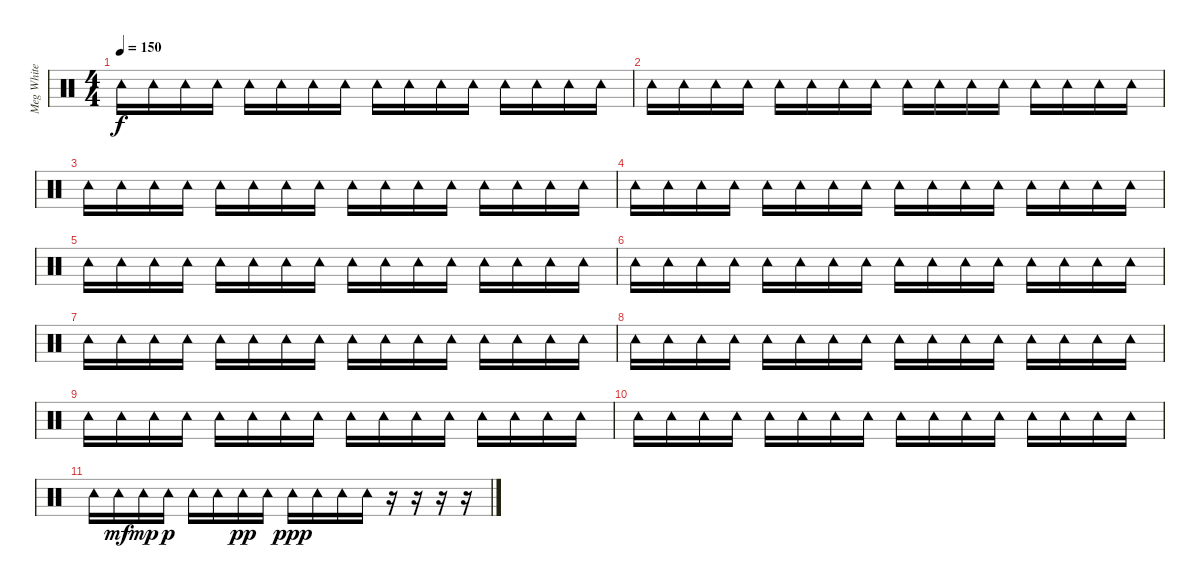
\track ("Meg White - Tambourine" "Meg White ") {instrument percussion}
\staff {score}
\articulation defaults
\ts (4 4)
\tempo 150
\clef neutral
\ks c "Tambourine (hit)".16{dy f} "Tambourine (hit)".16 "Tambourine (hit)".16 "Tambourine (hit)".16 "Tambourine (hit)".16 "Tambourine (hit)".16 "Tambourine (hit)".16 "Tambourine (hit)".16 "Tambourine (hit)".16 "Tambourine (hit)".16 "Tambourine (hit)".16 "Tambourine (hit)".16 "Tambourine (hit)".16 "Tambourine (hit)".16 "Tambourine (hit)".16 "Tambourine (hit)".16
|
"Tambourine (hit)".16 "Tambourine (hit)".16 "Tambourine (hit)".16 "Tambourine (hit)".16 "Tambourine (hit)".16 "Tambourine (hit)".16 "Tambourine (hit)".16 "Tambourine (hit)".16 "Tambourine (hit)".16 "Tambourine (hit)".16 "Tambourine (hit)".16 "Tambourine (hit)".16 "Tambourine (hit)".16 "Tambourine (hit)".16 "Tambourine (hit)".16 "Tambourine (hit)".16 |
"Tambourine (hit)".16 "Tambourine (hit)".16 "Tambourine (hit)".16 "Tambourine (hit)".16 "Tambourine (hit)".16 "Tambourine (hit)".16 "Tambourine (hit)".16 "Tambourine (hit)".16 "Tambourine (hit)".16 "Tambourine (hit)".16 "Tambourine (hit)".16 "Tambourine (hit)".16 "Tambourine (hit)".16 "Tambourine (hit)".16 "Tambourine (hit)".16 "Tambourine (hit)".16 |
"Tambourine (hit)".16 "Tambourine (hit)".16 "Tambourine (hit)".16 "Tambourine (hit)".16 "Tambourine (hit)".16 "Tambourine (hit)".16 "Tambourine (hit)".16 "Tambourine (hit)".16 "Tambourine (hit)".16 "Tambourine (hit)".16 "Tambourine (hit)".16 "Tambourine (hit)".16 "Tambourine (hit)".16 "Tambourine (hit)".16 "Tambourine (hit)".16 "Tambourine (hit)".16 |
"Tambourine (hit)".16 "Tambourine (hit)".16 "Tambourine (hit)".16 "Tambourine (hit)".16 "Tambourine (hit)".16 "Tambourine (hit)".16 "Tambourine (hit)".16 "Tambourine (hit)".16 "Tambourine (hit)".16 "Tambourine (hit)".16 "Tambourine (hit)".16 "Tambourine (hit)".16 "Tambourine (hit)".16 "Tambourine (hit)".16 "Tambourine (hit)".16 "Tambourine (hit)".16 |
"Tambourine (hit)".16 "Tambourine (hit)".16 "Tambourine (hit)".16 "Tambourine (hit)".16 "Tambourine (hit)".16 "Tambourine (hit)".16 "Tambourine (hit)".16 "Tambourine (hit)".16 "Tambourine (hit)".16 "Tambourine (hit)".16 "Tambourine (hit)".16 "Tambourine (hit)".16 "Tambourine (hit)".16 "Tambourine (hit)".16 "Tambourine (hit)".16 "Tambourine (hit)".16 |
"Tambourine (hit)".16 "Tambourine (hit)".16 "Tambourine (hit)".16 "Tambourine (hit)".16 "Tambourine (hit)".16 "Tambourine (hit)".16 "Tambourine (hit)".16 "Tambourine (hit)".16 "Tambourine (hit)".16 "Tambourine (hit)".16 "Tambourine (hit)".16 "Tambourine (hit)".16 "Tambourine (hit)".16 "Tambourine (hit)".16 "Tambourine (hit)".16 "Tambourine (hit)".16 |
"Tambourine (hit)".16 "Tambourine (hit)".16 "Tambourine (hit)".16 "Tambourine (hit)".16 "Tambourine (hit)".16 "Tambourine (hit)".16 "Tambourine (hit)".16 "Tambourine (hit)".16 "Tambourine (hit)".16 "Tambourine (hit)".16 "Tambourine (hit)".16 "Tambourine (hit)".16 "Tambourine (hit)".16 "Tambourine (hit)".16 "Tambourine (hit)".16 "Tambourine (hit)".16 |
"Tambourine (hit)".16 "Tambourine (hit)".16 "Tambourine (hit)".16 "Tambourine (hit)".16 "Tambourine (hit)".16 "Tambourine (hit)".16 "Tambourine (hit)".16 "Tambourine (hit)".16 "Tambourine (hit)".16 "Tambourine (hit)".16 "Tambourine (hit)".16 "Tambourine (hit)".16 "Tambourine (hit)".16 "Tambourine (hit)".16 "Tambourine (hit)".16 "Tambourine (hit)".16 |
"Tambourine (hit)".16 "Tambourine (hit)".16 "Tambourine (hit)".16 "Tambourine (hit)".16 "Tambourine (hit)".16 "Tambourine (hit)".16 "Tambourine (hit)".16 "Tambourine (hit)".16 "Tambourine (hit)".16 "Tambourine (hit)".16 "Tambourine (hit)".16 "Tambourine (hit)".16 "Tambourine (hit)".16 "Tambourine (hit)".16 "Tambourine (hit)".16 "Tambourine (hit)".16 |
"Tambourine (hit)".16 "Tambourine (hit)".16{dy mf} "Tambourine (hit)".16{dy mp} "Tambourine (hit)".16{dy p} "Tambourine (hit)".16 "Tambourine (hit)".16 "Tambourine (hit)".16{dy pp} "Tambourine (hit)".16 "Tambourine (hit)".16{dy ppp} "Tambourine (hit)".16 "Tambourine (hit)".16 "Tambourine (hit)".16 r.16 r.16 r.16 r.16
